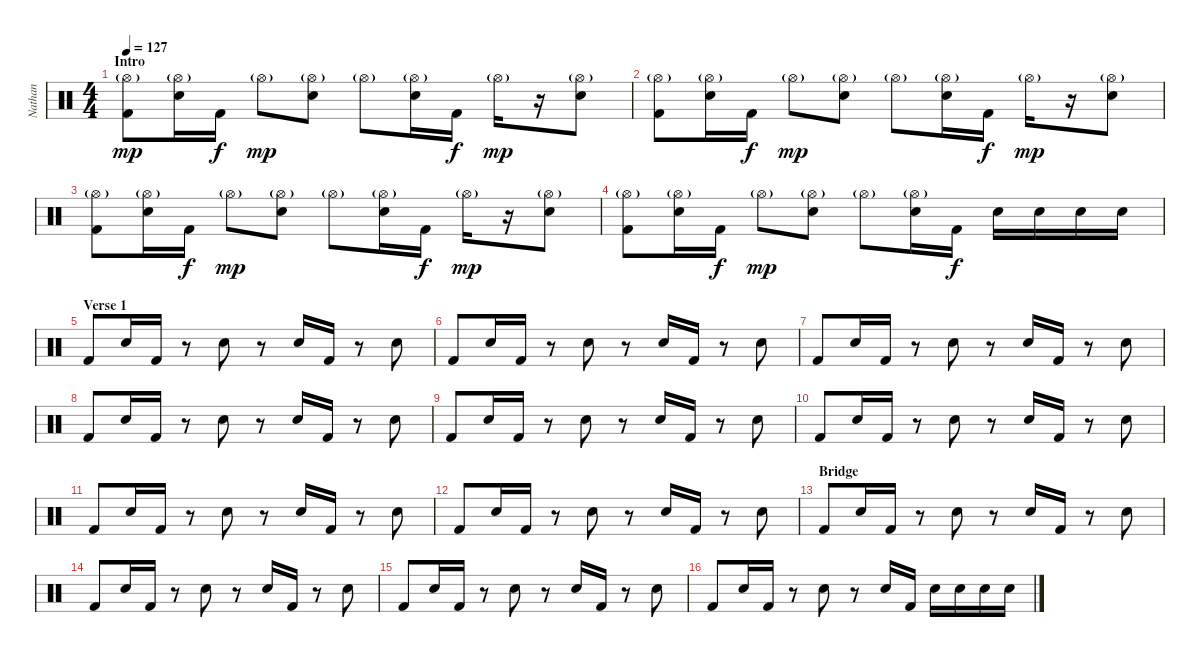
\track ("Nathan" "Nathan") {instrument percussion}
\staff {score}
\articulation defaults
\ts (4 4)
\section ("" "Intro ")
\tempo 127
\clef neutral
\ks c
("Hi-Hat (open)"{g} "Kick (hit) 2").8{dy mp} ("Hi-Hat (open)"{g} "Electric Snare (hit)").16 "Kick (hit) 2".16{dy f} "Hi-Hat (open)"{g}.8{dy mp} ("Hi-Hat (open)"{g} "Electric Snare (hit)").8 "Hi-Hat (open)"{g}.8 ("Hi-Hat (open)"{g} "Electric Snare (hit)").16 "Kick (hit) 2".16{dy f} "Hi-Hat (open)"{g}.16{dy mp} r.16 ("Hi-Hat (open)"{g} "Electric Snare (hit)").8 |
("Hi-Hat (open)"{g} "Kick (hit) 2").8 ("Hi-Hat (open)"{g} "Electric Snare (hit)").16 "Kick (hit) 2".16{dy f} "Hi-Hat (open)"{g}.8{dy mp} ("Hi-Hat (open)"{g} "Electric Snare (hit)").8 "Hi-Hat (open)"{g}.8 ("Hi-Hat (open)"{g} "Electric Snare (hit)").16 "Kick (hit) 2".16{dy f} "Hi-Hat (open)"{g}.16{dy mp} r.16 ("Hi-Hat (open)"{g} "Electric Snare (hit)").8 |
("Hi-Hat (open)"{g} "Kick (hit) 2").8 ("Hi-Hat (open)"{g} "Electric Snare (hit)").16 "Kick (hit) 2".16{dy f} "Hi-Hat (open)"{g}.8{dy mp} ("Hi-Hat (open)"{g} "Electric Snare (hit)").8 "Hi-Hat (open)"{g}.8 ("Hi-Hat (open)"{g} "Electric Snare (hit)").16 "Kick (hit) 2".16{dy f} "Hi-Hat (open)"{g}.16{dy mp} r.16 ("Hi-Hat (open)"{g} "Electric Snare (hit)").8 |
("Hi-Hat (open)"{g} "Kick (hit) 2").8 ("Hi-Hat (open)"{g} "Electric Snare (hit)").16 "Kick (hit) 2".16{dy f} "Hi-Hat (open)"{g}.8{dy mp} ("Hi-Hat (open)"{g} "Electric Snare (hit)").8 "Hi-Hat (open)"{g}.8 ("Hi-Hat (open)"{g} "Electric Snare (hit)").16 "Kick (hit) 2".16{dy f} "Electric Snare (hit)".16 "Electric Snare (hit)".16 "Electric Snare (hit)".16 "Electric Snare (hit)".16 |
\section ("" "Verse 1")
"Kick (hit) 2".8 "Electric Snare (hit)".16 "Kick (hit) 2".16 r.8 "Electric Snare (hit)".8 r.8 "Electric Snare (hit)".16 "Kick (hit) 2".16 r.8 "Electric Snare (hit)".8 |
"Kick (hit) 2".8 "Electric Snare (hit)".16 "Kick (hit) 2".16 r.8 "Electric Snare (hit)".8 r.8 "Electric Snare (hit)".16 "Kick (hit) 2".16 r.8 "Electric Snare (hit)".8 |
"Kick (hit) 2".8 "Electric Snare (hit)".16 "Kick (hit) 2".16 r.8 "Electric Snare (hit)".8 r.8 "Electric Snare (hit)".16 "Kick (hit) 2".16 r.8 "Electric Snare (hit)".8 |
"Kick (hit) 2".8 "Electric Snare (hit)".16 "Kick (hit) 2".16 r.8 "Electric Snare (hit)".8 r.8 "Electric Snare (hit)".16 "Kick (hit) 2".16 r.8 "Electric Snare (hit)".8 |
"Kick (hit) 2".8 "Electric Snare (hit)".16 "Kick (hit) 2".16 r.8 "Electric Snare (hit)".8 r.8 "Electric Snare (hit)".16 "Kick (hit) 2".16 r.8 "Electric Snare (hit)".8 |
"Kick (hit) 2".8 "Electric Snare (hit)".16 "Kick (hit) 2".16 r.8 "Electric Snare (hit)".8 r.8 "Electric Snare (hit)".16 "Kick (hit) 2".16 r.8 "Electric Snare (hit)".8 |
"Kick (hit) 2".8 "Electric Snare (hit)".16 "Kick (hit) 2".16 r.8 "Electric Snare (hit)".8 r.8 "Electric Snare (hit)".16 "Kick (hit) 2".16 r.8 "Electric Snare (hit)".8 |
"Kick (hit) 2".8 "Electric Snare (hit)".16 "Kick (hit) 2".16 r.8 "Electric Snare (hit)".8 r.8 "Electric Snare (hit)".16 "Kick (hit) 2".16 r.8 "Electric Snare (hit)".8 |
\section ("" "Bridge")
"Kick (hit) 2".8 "Electric Snare (hit)".16 "Kick (hit) 2".16 r.8 "Electric Snare (hit)".8 r.8 "Electric Snare (hit)".16 "Kick (hit) 2".16 r.8 "Electric Snare (hit)".8 |
"Kick (hit) 2".8 "Electric Snare (hit)".16 "Kick (hit) 2".16 r.8 "Electric Snare (hit)".8 r.8 "Electric Snare (hit)".16 "Kick (hit) 2".16 r.8 "Electric Snare (hit)".8 |
"Kick (hit) 2".8 "Electric Snare (hit)".16 "Kick (hit) 2".16 r.8 "Electric Snare (hit)".8 r.8 "Electric Snare (hit)".16 "Kick (hit) 2".16 r.8 "Electric Snare (hit)".8 |
"Kick (hit) 2".8 "Electric Snare (hit)".16 "Kick (hit) 2".16 r.8 "Electric Snare (hit)".8 r.8 "Electric Snare (hit)".16 "Kick (hit) 2".16 "Electric Snare (hit)".16 "Electric Snare (hit)".16 "Electric Snare (hit)".16 "Electric Snare (hit)".16
